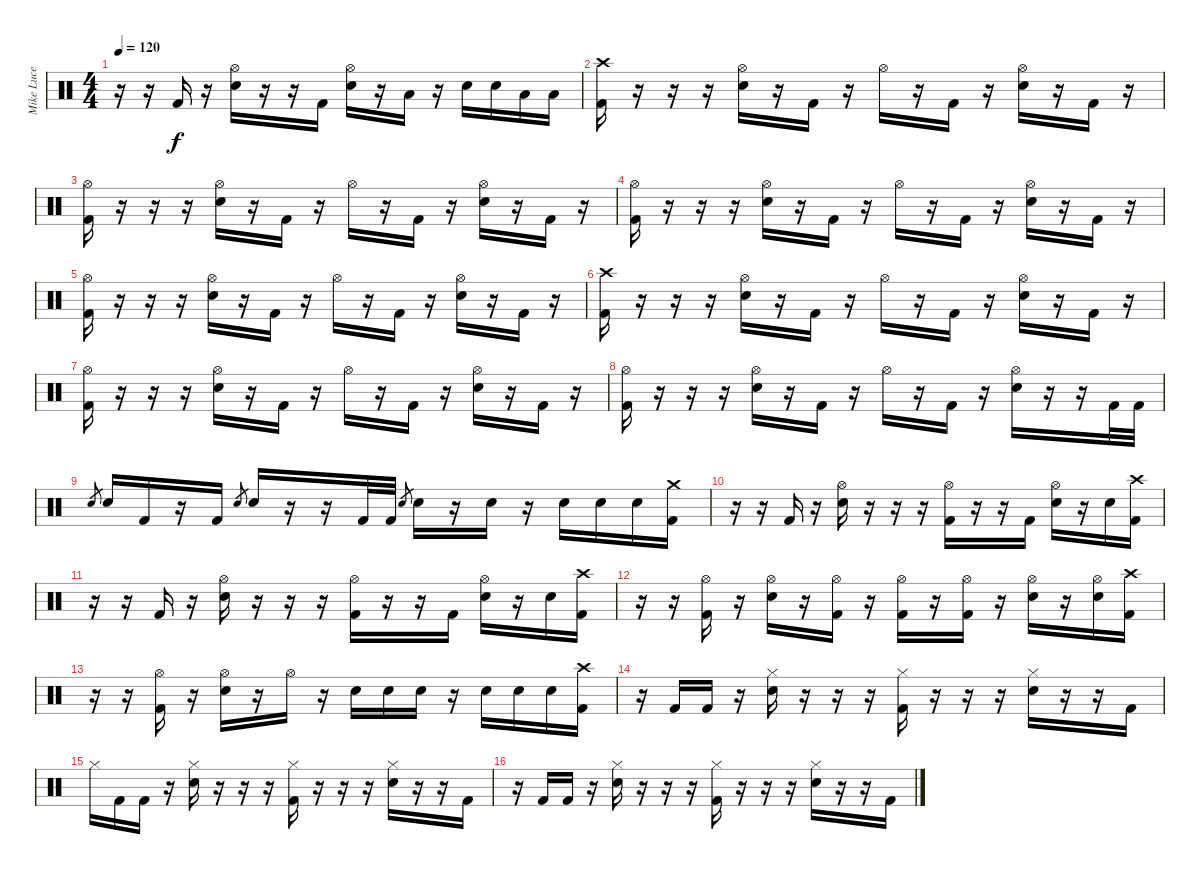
\track ("Mike Luce" "Mike Luce") {instrument percussion}
\staff {score}
\articulation defaults
\ts (4 4)
\tempo 120
\clef neutral
\ks c
r.16{dy f} r.16 "Kick (hit) 2".16 r.16 ("Hi-Hat (open)" "Electric Snare (hit)").16 r.16 r.16 "Kick (hit) 2".16 ("Hi-Hat (open)" "Electric Snare (hit)").16 r.16 "Low Tom (hit)".16 r.16 "Electric Snare (hit)".16 "Electric Snare (hit)".16 "Low Tom (hit)".16 "Low Tom (hit)".16 |
("Crash high (hit)" "Kick (hit) 2").16 r.16 r.16 r.16 ("Hi-Hat (open)" "Electric Snare (hit)").16 r.16 "Kick (hit) 2".16 r.16 "Hi-Hat (open)".16 r.16 "Kick (hit) 2".16 r.16 ("Hi-Hat (open)" "Electric Snare (hit)").16 r.16 "Kick (hit) 2".16 r.16 |
("Hi-Hat (open)" "Kick (hit) 2").16 r.16 r.16 r.16 ("Hi-Hat (open)" "Electric Snare (hit)").16 r.16 "Kick (hit) 2".16 r.16 "Hi-Hat (open)".16 r.16 "Kick (hit) 2".16 r.16 ("Hi-Hat (open)" "Electric Snare (hit)").16 r.16 "Kick (hit) 2".16 r.16 |
("Hi-Hat (open)" "Kick (hit) 2").16 r.16 r.16 r.16 ("Hi-Hat (open)" "Electric Snare (hit)").16 r.16 "Kick (hit) 2".16 r.16 "Hi-Hat (open)".16 r.16 "Kick (hit) 2".16 r.16 ("Hi-Hat (open)" "Electric Snare (hit)").16 r.16 "Kick (hit) 2".16 r.16 |
("Hi-Hat (open)" "Kick (hit) 2").16 r.16 r.16 r.16 ("Hi-Hat (open)" "Electric Snare (hit)").16 r.16 "Kick (hit) 2".16 r.16 "Hi-Hat (open)".16 r.16 "Kick (hit) 2".16 r.16 ("Hi-Hat (open)" "Electric Snare (hit)").16 r.16 "Kick (hit) 2".16 r.16 |
("Crash high (hit)" "Kick (hit) 2").16 r.16 r.16 r.16 ("Hi-Hat (open)" "Electric Snare (hit)").16 r.16 "Kick (hit) 2".16 r.16 "Hi-Hat (open)".16 r.16 "Kick (hit) 2".16 r.16 ("Hi-Hat (open)" "Electric Snare (hit)").16 r.16 "Kick (hit) 2".16 r.16 |
("Hi-Hat (open)" "Kick (hit) 2").16 r.16 r.16 r.16 ("Hi-Hat (open)" "Electric Snare (hit)").16 r.16 "Kick (hit) 2".16 r.16 "Hi-Hat (open)".16 r.16 "Kick (hit) 2".16 r.16 ("Hi-Hat (open)" "Electric Snare (hit)").16 r.16 "Kick (hit) 2".16 r.16 |
("Hi-Hat (open)" "Kick (hit) 2").16 r.16 r.16 r.16 ("Hi-Hat (open)" "Electric Snare (hit)").16 r.16 "Kick (hit) 2".16 r.16 "Hi-Hat (open)".16 r.16 "Kick (hit) 2".16 r.16 ("Hi-Hat (open)" "Electric Snare (hit)").16 r.16 r.16 "Kick (hit) 2".32 "Kick (hit) 2".32 |
"Electric Snare (hit)".8{gr} "Electric Snare (hit)".16 "Kick (hit) 2".16 r.16 "Kick (hit) 2".16 "Electric Snare (hit)".8{gr} "Electric Snare (hit)".16 r.16 r.16 "Kick (hit) 2".32 "Kick (hit) 2".32 "Electric Snare (hit)".8{gr} "Electric Snare (hit)".16 r.16 "Electric Snare (hit)".16 r.16 "Electric Snare (hit)".16 "Electric Snare (hit)".16 "Electric Snare (hit)".16 ("Crash medium (hit)" "Kick (hit) 2").16 |
r.16 r.16 "Kick (hit) 2".16 r.16 ("Hi-Hat (open)" "Electric Snare (hit)").16 r.16 r.16 r.16 ("Hi-Hat (open)" "Kick (hit) 2").16 r.16 r.16 "Kick (hit) 2".16 ("Hi-Hat (open)" "Electric Snare (hit)").16 r.16 "Electric Snare (hit)".16 ("Crash high (hit)" "Kick (hit) 2").16 |
r.16 r.16 "Kick (hit) 2".16 r.16 ("Hi-Hat (open)" "Electric Snare (hit)").16 r.16 r.16 r.16 ("Hi-Hat (open)" "Kick (hit) 2").16 r.16 r.16 "Kick (hit) 2".16 ("Hi-Hat (open)" "Electric Snare (hit)").16 r.16 "Electric Snare (hit)".16 ("Crash high (hit)" "Kick (hit) 2").16 |
r.16 r.16 ("Hi-Hat (open)" "Kick (hit) 2").16 r.16 ("Hi-Hat (open)" "Electric Snare (hit)").16 r.16 ("Hi-Hat (open)" "Kick (hit) 2").16 r.16 ("Hi-Hat (open)" "Kick (hit) 2").16 r.16 ("Hi-Hat (open)" "Kick (hit) 2").16 r.16 ("Hi-Hat (open)" "Electric Snare (hit)").16 r.16 ("Hi-Hat (open)" "Electric Snare (hit)").16 ("Crash high (hit)" "Kick (hit) 2").16 |
r.16 r.16 ("Hi-Hat (open)" "Kick (hit) 2").16 r.16 ("Hi-Hat (open)" "Electric Snare (hit)").16 r.16 "Hi-Hat (open)".16 r.16 "Electric Snare (hit)".16 "Electric Snare (hit)".16 "Electric Snare (hit)".16 r.16 "Electric Snare (hit)".16 "Electric Snare (hit)".16 "Electric Snare (hit)".16 ("Crash high (hit)" "Kick (hit) 2").16 |
r.16 "Kick (hit) 2".16 "Kick (hit) 2".16 r.16 ("Hi-Hat (closed)" "Electric Snare (hit)").16 r.16 r.16 r.16 ("Hi-Hat (closed)" "Kick (hit) 2").16 r.16 r.16 r.16 ("Hi-Hat (closed)" "Electric Snare (hit)").16 r.16 r.16 "Kick (hit) 2".16 |
"Hi-Hat (closed)".16 "Kick (hit) 2".16 "Kick (hit) 2".16 r.16 ("Hi-Hat (closed)" "Electric Snare (hit)").16 r.16 r.16 r.16 ("Hi-Hat (closed)" "Kick (hit) 2").16 r.16 r.16 r.16 ("Hi-Hat (closed)" "Electric Snare (hit)").16 r.16 r.16 "Kick (hit) 2".16 |
r.16 "Kick (hit) 2".16 "Kick (hit) 2".16 r.16 ("Hi-Hat (closed)" "Electric Snare (hit)").16 r.16 r.16 r.16 ("Hi-Hat (closed)" "Kick (hit) 2").16 r.16 r.16 r.16 ("Hi-Hat (closed)" "Electric Snare (hit)").16 r.16 r.16 "Kick (hit) 2".16
